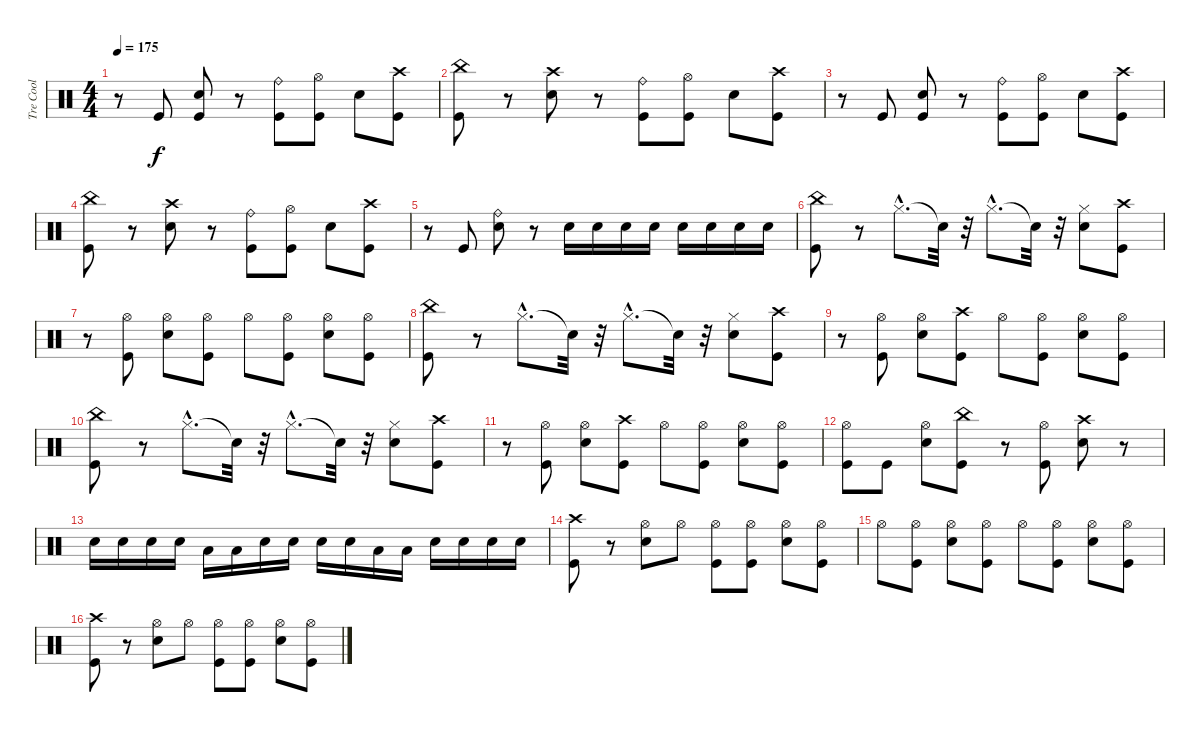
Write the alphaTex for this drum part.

\track ("Tre Cool" "Tre Cool") {instrument percussion}
\staff {score}
\articulation defaults
\ts (4 4)
\tempo 175
\clef neutral
\ks c
r.8{dy f} "Kick (hit)".8 ("Snare (hit) 2" "Kick (hit)").8 r.8 ("Kick (hit)" "Ride (bell)").8 ("Kick (hit)" "Hi-Hat (open)").8 "Snare (hit) 2".8 ("Kick (hit)" "Crash high (hit)").8 |
("Kick (hit)" "China (hit)").8 r.8 ("Snare (hit) 2" "Crash high (hit)").8 r.8 ("Kick (hit)" "Ride (bell)").8 ("Kick (hit)" "Hi-Hat (open)").8 "Snare (hit) 2".8 ("Kick (hit)" "Crash high (hit)").8 |
r.8 "Kick (hit)".8 ("Snare (hit) 2" "Kick (hit)").8 r.8 ("Kick (hit)" "Ride (bell)").8 ("Kick (hit)" "Hi-Hat (open)").8 "Snare (hit) 2".8 ("Kick (hit)" "Crash high (hit)").8 |
("Kick (hit)" "China (hit)").8 r.8 ("Snare (hit) 2" "Crash high (hit)").8 r.8 ("Kick (hit)" "Ride (bell)").8 ("Kick (hit)" "Hi-Hat (open)").8 "Snare (hit) 2".8 ("Kick (hit)" "Crash high (hit)").8 |
r.8 "Kick (hit)".8 ("Snare (hit) 2" "Ride (bell)").8 r.8 "Snare (hit) 2".16 "Snare (hit) 2".16 "Snare (hit) 2".16 "Snare (hit) 2".16 "Snare (hit) 2".16 "Snare (hit) 2".16 "Snare (hit) 2".16 "Snare (hit) 2".16 |
("Kick (hit)" "China (hit)").8 r.8 "Hi-Hat (closed)"{hac}.8{d} "Snare (hit)"{t}.32 r.32 "Hi-Hat (closed)"{hac}.8{d} "Snare (hit)"{t}.32 r.32 ("Snare (hit) 2" "Hi-Hat (closed)").8 ("Kick (hit)" "Crash high (hit)").8 |
r.8 ("Kick (hit)" "Hi-Hat (open)").8 ("Snare (hit) 2" "Hi-Hat (open)").8 ("Kick (hit)" "Hi-Hat (open)").8 "Hi-Hat (open)".8 ("Kick (hit)" "Hi-Hat (open)").8 ("Snare (hit) 2" "Hi-Hat (open)").8 ("Kick (hit)" "Hi-Hat (open)").8 |
("Kick (hit)" "China (hit)").8 r.8 "Hi-Hat (closed)"{hac}.8{d} "Snare (hit)"{t}.32 r.32 "Hi-Hat (closed)"{hac}.8{d} "Snare (hit)"{t}.32 r.32 ("Snare (hit) 2" "Hi-Hat (closed)").8 ("Kick (hit)" "Crash high (hit)").8 |
r.8 ("Kick (hit)" "Hi-Hat (open)").8 ("Snare (hit) 2" "Hi-Hat (open)").8 ("Kick (hit)" "Crash high (hit)").8 "Hi-Hat (open)".8 ("Kick (hit)" "Hi-Hat (open)").8 ("Snare (hit) 2" "Hi-Hat (open)").8 ("Kick (hit)" "Hi-Hat (open)").8 |
("Kick (hit)" "China (hit)").8 r.8 "Hi-Hat (closed)"{hac}.8{d} "Snare (hit)"{t}.32 r.32 "Hi-Hat (closed)"{hac}.8{d} "Snare (hit)"{t}.32 r.32 ("Snare (hit) 2" "Hi-Hat (closed)").8 ("Kick (hit)" "Crash high (hit)").8 |
r.8 ("Kick (hit)" "Hi-Hat (open)").8 ("Snare (hit) 2" "Hi-Hat (open)").8 ("Kick (hit)" "Crash high (hit)").8 "Hi-Hat (open)".8 ("Kick (hit)" "Hi-Hat (open)").8 ("Snare (hit) 2" "Hi-Hat (open)").8 ("Kick (hit)" "Hi-Hat (open)").8 |
("Kick (hit)" "Hi-Hat (open)").8 "Kick (hit)".8 ("Snare (hit) 2" "Hi-Hat (open)").8 ("Kick (hit)" "China (hit)").8 r.8 ("Kick (hit)" "Hi-Hat (open)").8 ("Snare (hit) 2" "Crash high (hit)").8 r.8 |
"Snare (hit) 2".16 "Snare (hit) 2".16 "Snare (hit) 2".16 "Snare (hit) 2".16 "Low Floor Tom (hit)".16 "Low Floor Tom (hit)".16 "Snare (hit) 2".16 "Snare (hit) 2".16 "Snare (hit) 2".16 "Snare (hit) 2".16 "Low Floor Tom (hit)".16 "Low Floor Tom (hit)".16 "Snare (hit) 2".16 "Snare (hit) 2".16 "Snare (hit) 2".16 "Snare (hit) 2".16 |
("Kick (hit)" "Crash high (hit)").8 r.8 ("Snare (hit) 2" "Hi-Hat (open)").8 "Hi-Hat (open)".8 ("Kick (hit)" "Hi-Hat (open)").8 ("Kick (hit)" "Hi-Hat (open)").8 ("Snare (hit) 2" "Hi-Hat (open)").8 ("Kick (hit)" "Hi-Hat (open)").8 |
"Hi-Hat (open)".8 ("Kick (hit)" "Hi-Hat (open)").8 ("Snare (hit) 2" "Hi-Hat (open)").8 ("Kick (hit)" "Hi-Hat (open)").8 "Hi-Hat (open)".8 ("Kick (hit)" "Hi-Hat (open)").8 ("Snare (hit) 2" "Hi-Hat (open)").8 ("Kick (hit)" "Hi-Hat (open)").8 |
("Kick (hit)" "Crash high (hit)").8 r.8 ("Snare (hit) 2" "Hi-Hat (open)").8 "Hi-Hat (open)".8 ("Kick (hit)" "Hi-Hat (open)").8 ("Kick (hit)" "Hi-Hat (open)").8 ("Snare (hit) 2" "Hi-Hat (open)").8 ("Kick (hit)" "Hi-Hat (open)").8
